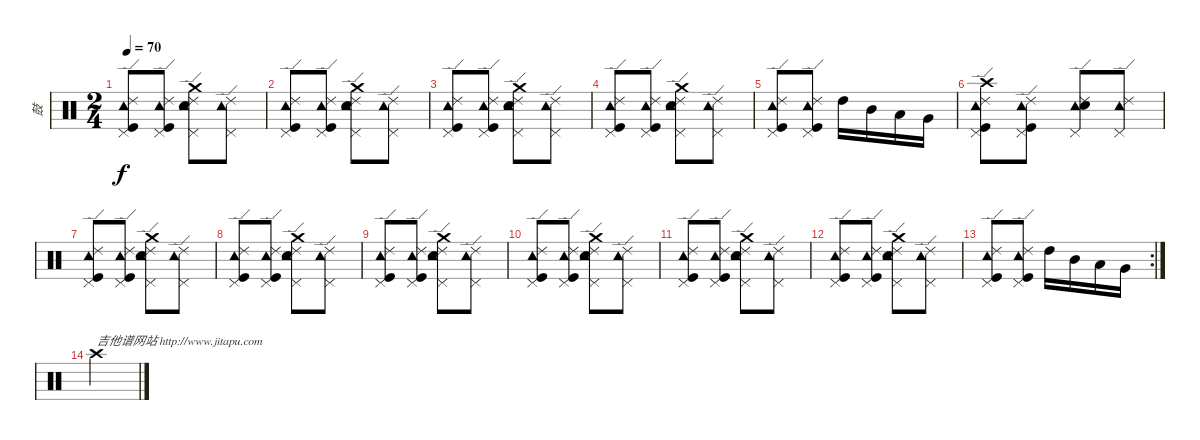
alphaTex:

\track ("鼓" "鼓") {instrument percussion}
\staff {score}
\articulation defaults
\ts (2 4)
\tempo 70
\clef neutral
\ks c
("Pedal Hi-Hat (hit)" "Ride (edge) 2" "Tambourine (hit)" "Kick (hit)").8{dy f} ("Pedal Hi-Hat (hit)" "Ride (edge) 2" "Tambourine (hit)" "Kick (hit)").8 ("Pedal Hi-Hat (hit)" "Ride (edge) 2" "Tambourine (hit)" "Electric Snare (hit)" "Crash medium (hit)").8 ("Pedal Hi-Hat (hit)" "Ride (edge) 2" "Tambourine (hit)").8 |
("Pedal Hi-Hat (hit)" "Ride (edge) 2" "Tambourine (hit)" "Kick (hit)").8 ("Pedal Hi-Hat (hit)" "Ride (edge) 2" "Tambourine (hit)" "Kick (hit)").8 ("Pedal Hi-Hat (hit)" "Ride (edge) 2" "Tambourine (hit)" "Electric Snare (hit)" "Crash medium (hit)").8 ("Pedal Hi-Hat (hit)" "Ride (edge) 2" "Tambourine (hit)").8 |
("Pedal Hi-Hat (hit)" "Ride (edge) 2" "Tambourine (hit)" "Kick (hit)").8 ("Pedal Hi-Hat (hit)" "Ride (edge) 2" "Tambourine (hit)" "Kick (hit)").8 ("Pedal Hi-Hat (hit)" "Ride (edge) 2" "Tambourine (hit)" "Electric Snare (hit)" "Crash medium (hit)").8 ("Pedal Hi-Hat (hit)" "Ride (edge) 2" "Tambourine (hit)").8 |
("Pedal Hi-Hat (hit)" "Ride (edge) 2" "Tambourine (hit)" "Kick (hit)").8 ("Pedal Hi-Hat (hit)" "Ride (edge) 2" "Tambourine (hit)" "Kick (hit)").8 ("Pedal Hi-Hat (hit)" "Ride (edge) 2" "Tambourine (hit)" "Electric Snare (hit)" "Crash medium (hit)").8 ("Pedal Hi-Hat (hit)" "Ride (edge) 2" "Tambourine (hit)").8 |
("Pedal Hi-Hat (hit)" "Ride (edge) 2" "Tambourine (hit)" "Kick (hit)").8 ("Pedal Hi-Hat (hit)" "Ride (edge) 2" "Tambourine (hit)" "Kick (hit)").8 "High Tom (hit)".16 "Mid Tom (hit)".16 "Low Tom (hit)".16 "Very Low Tom (hit)".16 |
("Pedal Hi-Hat (hit)" "Ride (edge) 2" "Tambourine (hit)" "Kick (hit)" "Crash high (hit)").8 ("Pedal Hi-Hat (hit)" "Ride (edge) 2" "Tambourine (hit)" "Kick (hit)").8 ("Pedal Hi-Hat (hit)" "Ride (edge) 2" "Tambourine (hit)" "Electric Snare (hit)").8 ("Pedal Hi-Hat (hit)" "Ride (edge) 2" "Tambourine (hit)").8 |
("Pedal Hi-Hat (hit)" "Ride (edge) 2" "Tambourine (hit)" "Kick (hit)").8 ("Pedal Hi-Hat (hit)" "Ride (edge) 2" "Tambourine (hit)" "Kick (hit)").8 ("Pedal Hi-Hat (hit)" "Ride (edge) 2" "Tambourine (hit)" "Electric Snare (hit)" "Crash medium (hit)").8 ("Pedal Hi-Hat (hit)" "Ride (edge) 2" "Tambourine (hit)").8 |
("Pedal Hi-Hat (hit)" "Ride (edge) 2" "Tambourine (hit)" "Kick (hit)").8 ("Pedal Hi-Hat (hit)" "Ride (edge) 2" "Tambourine (hit)" "Kick (hit)").8 ("Pedal Hi-Hat (hit)" "Ride (edge) 2" "Tambourine (hit)" "Electric Snare (hit)" "Crash medium (hit)").8 ("Pedal Hi-Hat (hit)" "Ride (edge) 2" "Tambourine (hit)").8 |
("Pedal Hi-Hat (hit)" "Ride (edge) 2" "Tambourine (hit)" "Kick (hit)").8 ("Pedal Hi-Hat (hit)" "Ride (edge) 2" "Tambourine (hit)" "Kick (hit)").8 ("Pedal Hi-Hat (hit)" "Ride (edge) 2" "Tambourine (hit)" "Electric Snare (hit)" "Crash medium (hit)").8 ("Pedal Hi-Hat (hit)" "Ride (edge) 2" "Tambourine (hit)").8 |
("Pedal Hi-Hat (hit)" "Ride (edge) 2" "Tambourine (hit)" "Kick (hit)").8 ("Pedal Hi-Hat (hit)" "Ride (edge) 2" "Tambourine (hit)" "Kick (hit)").8 ("Pedal Hi-Hat (hit)" "Ride (edge) 2" "Tambourine (hit)" "Electric Snare (hit)" "Crash medium (hit)").8 ("Pedal Hi-Hat (hit)" "Ride (edge) 2" "Tambourine (hit)").8 |
("Pedal Hi-Hat (hit)" "Ride (edge) 2" "Tambourine (hit)" "Kick (hit)").8 ("Pedal Hi-Hat (hit)" "Ride (edge) 2" "Tambourine (hit)" "Kick (hit)").8 ("Pedal Hi-Hat (hit)" "Ride (edge) 2" "Tambourine (hit)" "Electric Snare (hit)" "Crash medium (hit)").8 ("Pedal Hi-Hat (hit)" "Ride (edge) 2" "Tambourine (hit)").8 |
("Pedal Hi-Hat (hit)" "Ride (edge) 2" "Tambourine (hit)" "Kick (hit)").8 ("Pedal Hi-Hat (hit)" "Ride (edge) 2" "Tambourine (hit)" "Kick (hit)").8 ("Pedal Hi-Hat (hit)" "Ride (edge) 2" "Tambourine (hit)" "Electric Snare (hit)" "Crash medium (hit)").8 ("Pedal Hi-Hat (hit)" "Ride (edge) 2" "Tambourine (hit)").8 |
\rc 2
("Pedal Hi-Hat (hit)" "Ride (edge) 2" "Tambourine (hit)" "Kick (hit)").8 ("Pedal Hi-Hat (hit)" "Ride (edge) 2" "Tambourine (hit)" "Kick (hit)").8 "High Tom (hit)".16 "Mid Tom (hit)".16 "Low Tom (hit)".16 "Very Low Tom (hit)".16 |
"Crash high (hit)".2{txt "吉他谱网站 http://www.jitapu.com"}
